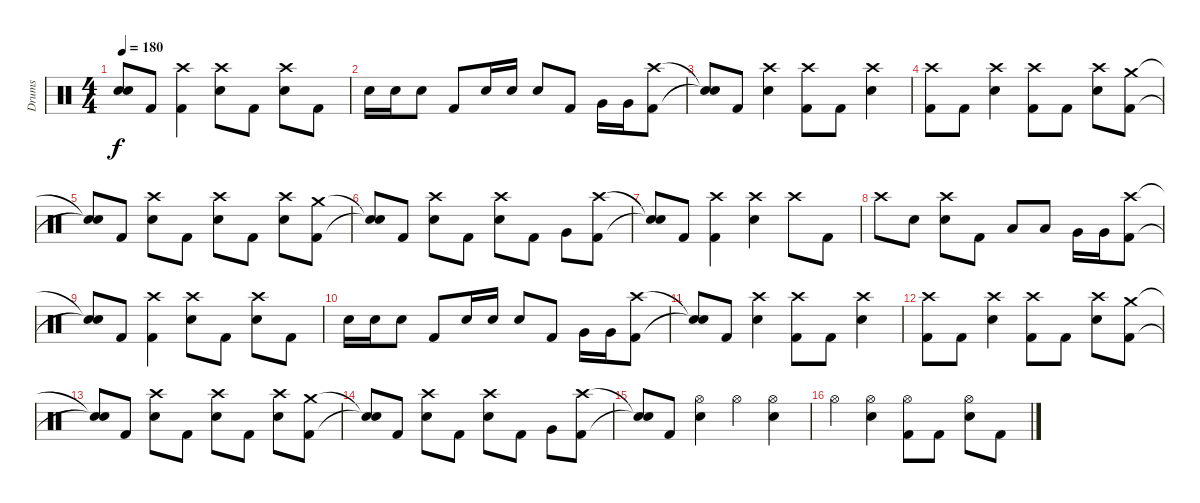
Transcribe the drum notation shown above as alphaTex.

\track ("Drums" "Drums") {instrument percussion}
\staff {score}
\articulation defaults
\ts (4 4)
\tempo 180
\clef neutral
\ks c
("Snare (hit)"{t} "Snare (hit)"{t}).8{dy f} "Kick (hit) 2".8 ("Crash high (hit)" "Kick (hit) 2").4 ("Crash high (hit)" "Electric Snare (hit)").8 "Kick (hit) 2".8 ("Crash high (hit)" "Electric Snare (hit)").8 "Kick (hit) 2".8 |
"Electric Snare (hit)".16 "Electric Snare (hit)".16 "Electric Snare (hit)".8 "Kick (hit) 2".8 "Electric Snare (hit)".16 "Electric Snare (hit)".16 "Electric Snare (hit)".8 "Kick (hit) 2".8 "Very Low Tom (hit)".16 "Very Low Tom (hit)".16 ("Crash high (hit)" "Kick (hit) 2").8 |
("Snare (hit)"{t} "Snare (hit)"{t}).8 "Kick (hit) 2".8 ("Crash high (hit)" "Electric Snare (hit)").4 ("Crash high (hit)" "Kick (hit) 2").8 "Kick (hit) 2".8 ("Crash high (hit)" "Electric Snare (hit)").4 |
("Crash high (hit)" "Kick (hit) 2").8 "Kick (hit) 2".8 ("Crash high (hit)" "Electric Snare (hit)").4 ("Crash high (hit)" "Kick (hit) 2").8 "Kick (hit) 2".8 ("Crash high (hit)" "Electric Snare (hit)").8 ("Crash medium (hit)" "Kick (hit) 2").8 |
("Snare (hit)"{t} "Snare (hit)"{t}).8 "Kick (hit) 2".8 ("Crash high (hit)" "Electric Snare (hit)").8 "Kick (hit) 2".8 ("Crash high (hit)" "Electric Snare (hit)").8 "Kick (hit) 2".8 ("Crash high (hit)" "Electric Snare (hit)").8 ("Crash medium (hit)" "Kick (hit) 2").8 |
("Snare (hit)"{t} "Snare (hit)"{t}).8 "Kick (hit) 2".8 ("Crash high (hit)" "Electric Snare (hit)").8 "Kick (hit) 2".8 ("Crash high (hit)" "Electric Snare (hit)").8 "Kick (hit) 2".8 "Very Low Tom (hit)".8 ("Crash high (hit)" "Kick (hit) 2").8 |
("Snare (hit)"{t} "Snare (hit)"{t}).8 "Kick (hit) 2".8 ("Crash high (hit)" "Kick (hit) 2").4 ("Crash high (hit)" "Electric Snare (hit)").4 "Crash high (hit)".8 "Kick (hit) 2".8 |
"Crash high (hit)".8 "Electric Snare (hit)".8 ("Crash high (hit)" "Electric Snare (hit)").8 "Kick (hit) 2".8 "Low Tom (hit)".8 "Low Tom (hit)".8 "Very Low Tom (hit)".16 "Very Low Tom (hit)".16 ("Crash high (hit)" "Kick (hit) 2").8 |
("Snare (hit)"{t} "Snare (hit)"{t}).8 "Kick (hit) 2".8 ("Crash high (hit)" "Kick (hit) 2").4 ("Crash high (hit)" "Electric Snare (hit)").8 "Kick (hit) 2".8 ("Crash high (hit)" "Electric Snare (hit)").8 "Kick (hit) 2".8 |
"Electric Snare (hit)".16 "Electric Snare (hit)".16 "Electric Snare (hit)".8 "Kick (hit) 2".8 "Electric Snare (hit)".16 "Electric Snare (hit)".16 "Electric Snare (hit)".8 "Kick (hit) 2".8 "Very Low Tom (hit)".16 "Very Low Tom (hit)".16 ("Crash high (hit)" "Kick (hit) 2").8 |
("Snare (hit)"{t} "Snare (hit)"{t}).8 "Kick (hit) 2".8 ("Crash high (hit)" "Electric Snare (hit)").4 ("Crash high (hit)" "Kick (hit) 2").8 "Kick (hit) 2".8 ("Crash high (hit)" "Electric Snare (hit)").4 |
("Crash high (hit)" "Kick (hit) 2").8 "Kick (hit) 2".8 ("Crash high (hit)" "Electric Snare (hit)").4 ("Crash high (hit)" "Kick (hit) 2").8 "Kick (hit) 2".8 ("Crash high (hit)" "Electric Snare (hit)").8 ("Crash medium (hit)" "Kick (hit) 2").8 |
("Snare (hit)"{t} "Snare (hit)"{t}).8 "Kick (hit) 2".8 ("Crash high (hit)" "Electric Snare (hit)").8 "Kick (hit) 2".8 ("Crash high (hit)" "Electric Snare (hit)").8 "Kick (hit) 2".8 ("Crash high (hit)" "Electric Snare (hit)").8 ("Crash medium (hit)" "Kick (hit) 2").8 |
("Snare (hit)"{t} "Snare (hit)"{t}).8 "Kick (hit) 2".8 ("Crash high (hit)" "Electric Snare (hit)").8 "Kick (hit) 2".8 ("Crash high (hit)" "Electric Snare (hit)").8 "Kick (hit) 2".8 "Very Low Tom (hit)".8 ("Crash high (hit)" "Kick (hit) 2").8 |
("Snare (hit)"{t} "Snare (hit)"{t}).8 "Kick (hit) 2".8 ("Hi-Hat (open)" "Electric Snare (hit)").4 "Hi-Hat (open)".4 ("Hi-Hat (open)" "Electric Snare (hit)").4 |
"Hi-Hat (open)".4 ("Hi-Hat (open)" "Electric Snare (hit)").4 ("Hi-Hat (open)" "Kick (hit) 2").8 "Kick (hit) 2".8 ("Hi-Hat (open)" "Electric Snare (hit)").8 "Kick (hit) 2".8
